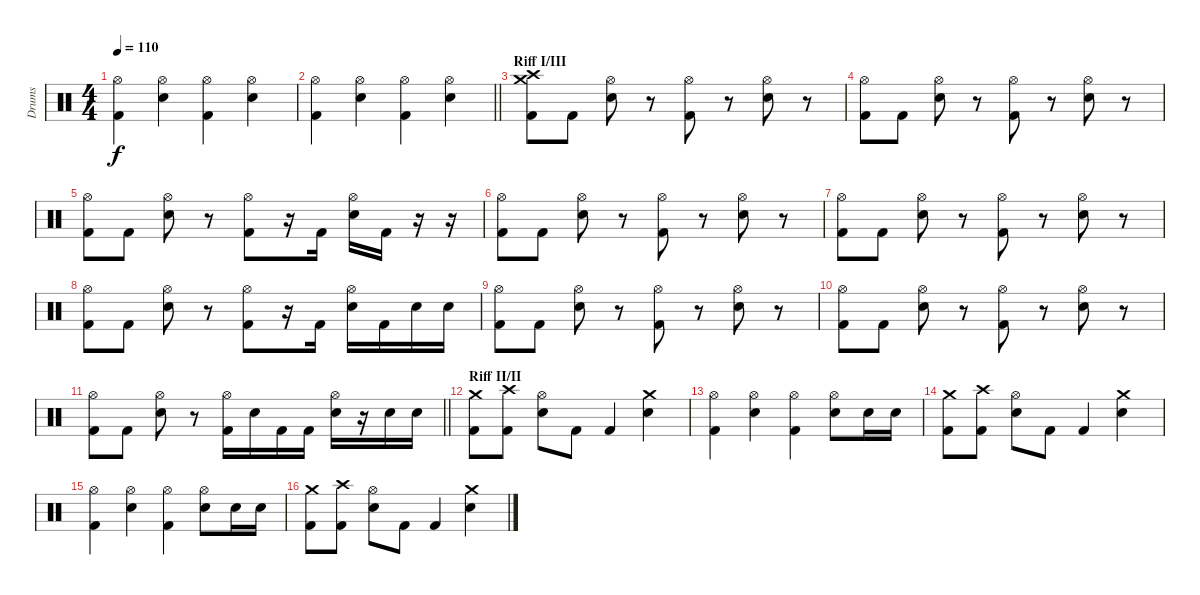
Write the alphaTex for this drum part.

\track ("Drums" "Drums") {instrument percussion}
\staff {score}
\articulation defaults
\ts (4 4)
\tempo 110
\clef neutral
\ks c
("Hi-Hat (open)" "Kick (hit) 2").4{dy f} ("Hi-Hat (open)" "Snare (hit) 2").4 ("Hi-Hat (open)" "Kick (hit) 2").4 ("Hi-Hat (open)" "Snare (hit) 2").4 |
\barLineRight lightlight
("Hi-Hat (open)" "Kick (hit) 2").4 ("Hi-Hat (open)" "Snare (hit) 2").4 ("Hi-Hat (open)" "Kick (hit) 2").4 ("Hi-Hat (open)" "Snare (hit) 2").4 |
\section ("" "Riff I/III")
("Crash medium (hit)" "Crash high (hit)" "Kick (hit) 2").8 "Kick (hit) 2".8 ("Hi-Hat (open)" "Snare (hit) 2").8 r.8 ("Hi-Hat (open)" "Kick (hit) 2").8 r.8 ("Hi-Hat (open)" "Snare (hit) 2").8 r.8 |
("Hi-Hat (open)" "Kick (hit) 2").8 "Kick (hit) 2".8 ("Hi-Hat (open)" "Snare (hit) 2").8 r.8 ("Hi-Hat (open)" "Kick (hit) 2").8 r.8 ("Hi-Hat (open)" "Snare (hit) 2").8 r.8 |
("Hi-Hat (open)" "Kick (hit) 2").8 "Kick (hit) 2".8 ("Hi-Hat (open)" "Snare (hit) 2").8 r.8 ("Hi-Hat (open)" "Kick (hit) 2").8 r.16 "Kick (hit) 2".16 ("Hi-Hat (open)" "Snare (hit) 2").16 "Kick (hit) 2".16 r.16 r.16 |
("Hi-Hat (open)" "Kick (hit) 2").8 "Kick (hit) 2".8 ("Hi-Hat (open)" "Snare (hit) 2").8 r.8 ("Hi-Hat (open)" "Kick (hit) 2").8 r.8 ("Hi-Hat (open)" "Snare (hit) 2").8 r.8 |
("Hi-Hat (open)" "Kick (hit) 2").8 "Kick (hit) 2".8 ("Hi-Hat (open)" "Snare (hit) 2").8 r.8 ("Hi-Hat (open)" "Kick (hit) 2").8 r.8 ("Hi-Hat (open)" "Snare (hit) 2").8 r.8 |
("Hi-Hat (open)" "Kick (hit) 2").8 "Kick (hit) 2".8 ("Hi-Hat (open)" "Snare (hit) 2").8 r.8 ("Hi-Hat (open)" "Kick (hit) 2").8 r.16 "Kick (hit) 2".16 ("Hi-Hat (open)" "Snare (hit) 2").16 "Kick (hit) 2".16 "Snare (hit) 2".16 "Snare (hit) 2".16 |
("Hi-Hat (open)" "Kick (hit) 2").8 "Kick (hit) 2".8 ("Hi-Hat (open)" "Snare (hit) 2").8 r.8 ("Hi-Hat (open)" "Kick (hit) 2").8 r.8 ("Hi-Hat (open)" "Snare (hit) 2").8 r.8 |
("Hi-Hat (open)" "Kick (hit) 2").8 "Kick (hit) 2".8 ("Hi-Hat (open)" "Snare (hit) 2").8 r.8 ("Hi-Hat (open)" "Kick (hit) 2").8 r.8 ("Hi-Hat (open)" "Snare (hit) 2").8 r.8 |
\barLineRight lightlight
("Hi-Hat (open)" "Kick (hit) 2").8 "Kick (hit) 2".8 ("Hi-Hat (open)" "Snare (hit) 2").8 r.8 ("Hi-Hat (open)" "Kick (hit) 2").16 "Snare (hit) 2".16 "Kick (hit) 2".16 "Kick (hit) 2".16 ("Hi-Hat (open)" "Snare (hit) 2").16 r.16 "Snare (hit) 2".16 "Snare (hit) 2".16 |
\section ("" "Riff II/II")
("Crash medium (hit)" "Kick (hit) 2").8 ("Crash high (hit)" "Kick (hit) 2").8 ("Hi-Hat (open)" "Snare (hit) 2").8 "Kick (hit) 2".8 "Kick (hit) 2".4 ("Crash medium (hit)" "Snare (hit) 2").4 |
("Hi-Hat (open)" "Kick (hit) 2").4 ("Hi-Hat (open)" "Snare (hit) 2").4 ("Hi-Hat (open)" "Kick (hit) 2").4 ("Hi-Hat (open)" "Snare (hit) 2").8 "Snare (hit) 2".16 "Snare (hit) 2".16 |
("Crash medium (hit)" "Kick (hit) 2").8 ("Crash high (hit)" "Kick (hit) 2").8 ("Hi-Hat (open)" "Snare (hit) 2").8 "Kick (hit) 2".8 "Kick (hit) 2".4 ("Crash medium (hit)" "Snare (hit) 2").4 |
("Hi-Hat (open)" "Kick (hit) 2").4 ("Hi-Hat (open)" "Snare (hit) 2").4 ("Hi-Hat (open)" "Kick (hit) 2").4 ("Hi-Hat (open)" "Snare (hit) 2").8 "Snare (hit) 2".16 "Snare (hit) 2".16 |
("Crash medium (hit)" "Kick (hit) 2").8 ("Crash high (hit)" "Kick (hit) 2").8 ("Hi-Hat (open)" "Snare (hit) 2").8 "Kick (hit) 2".8 "Kick (hit) 2".4 ("Crash medium (hit)" "Snare (hit) 2").4
